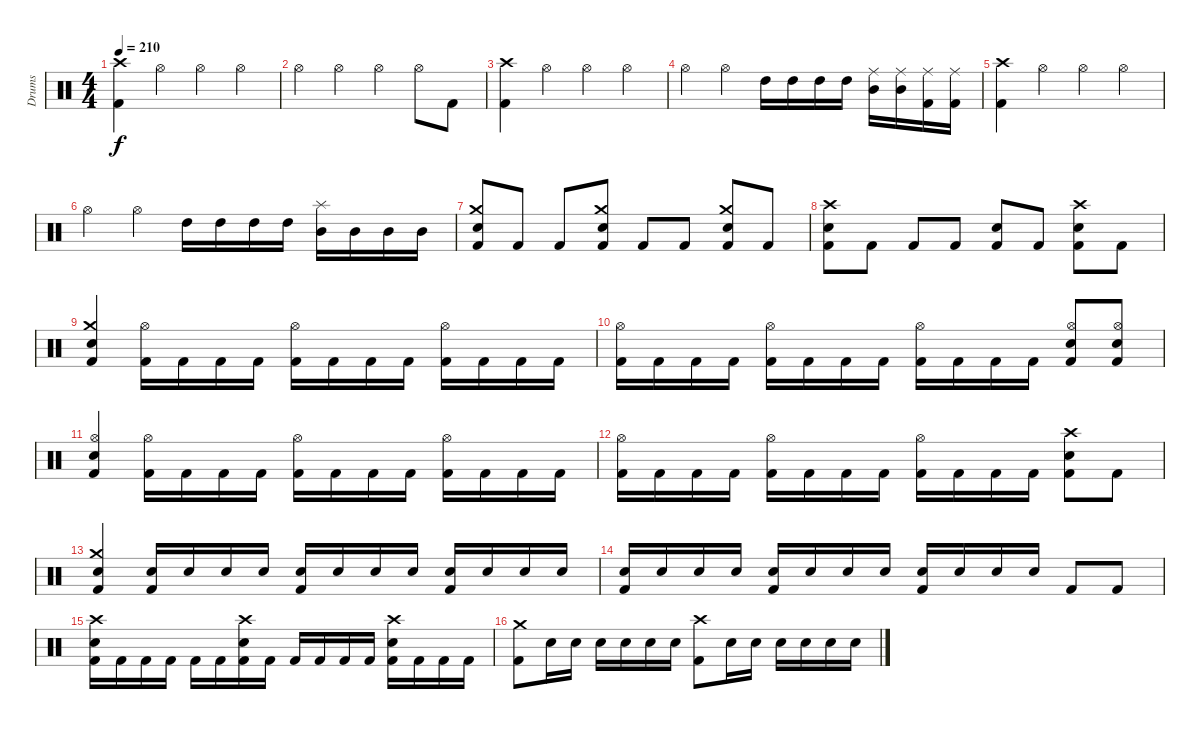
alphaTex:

\track ("Drums" "Drums") {instrument percussion}
\staff {score}
\articulation defaults
\ts (4 4)
\tempo 210
\clef neutral
\ks c
("Crash high (hit)" "Kick (hit) 2").4{dy f} "Hi-Hat (open)".4 "Hi-Hat (open)".4 "Hi-Hat (open)".4 |
"Hi-Hat (open)".4 "Hi-Hat (open)".4 "Hi-Hat (open)".4 "Hi-Hat (open)".8 "Kick (hit) 2".8 |
("Crash high (hit)" "Kick (hit) 2").4 "Hi-Hat (open)".4 "Hi-Hat (open)".4 "Hi-Hat (open)".4 |
"Hi-Hat (open)".4 "Hi-Hat (open)".4 "High Tom (hit)".16 "High Tom (hit)".16 "High Tom (hit)".16 "High Tom (hit)".16 ("Ride (middle)" "Mid Tom (hit)").16 ("Ride (middle)" "Mid Tom (hit)").16 ("Ride (middle)" "Kick (hit) 2").16 ("Ride (middle)" "Kick (hit) 2").16 |
("Crash high (hit)" "Kick (hit) 2").4 "Hi-Hat (open)".4 "Hi-Hat (open)".4 "Hi-Hat (open)".4 |
"Hi-Hat (open)".4 "Hi-Hat (open)".4 "High Tom (hit)".16 "High Tom (hit)".16 "High Tom (hit)".16 "High Tom (hit)".16 ("Splash (hit)" "Mid Tom (hit)").16 "Mid Tom (hit)".16 "Mid Tom (hit)".16 "Mid Tom (hit)".16 |
("Crash medium (hit)" "Electric Snare (hit)" "Kick (hit) 2").8 "Kick (hit) 2".8 "Kick (hit) 2".8 ("Crash medium (hit)" "Electric Snare (hit)" "Kick (hit) 2").8 "Kick (hit) 2".8 "Kick (hit) 2".8 ("Crash medium (hit)" "Electric Snare (hit)" "Kick (hit) 2").8 "Kick (hit) 2".8 |
("Crash high (hit)" "Electric Snare (hit)" "Kick (hit) 2").8 "Kick (hit) 2".8 "Kick (hit) 2".8 "Kick (hit) 2".8 ("Electric Snare (hit)" "Kick (hit) 2").8 "Kick (hit) 2".8 ("Crash high (hit)" "Electric Snare (hit)" "Kick (hit) 2").8 "Kick (hit) 2".8 |
("Crash medium (hit)" "Electric Snare (hit)" "Kick (hit) 2").4 ("Hi-Hat (open)" "Kick (hit) 2").16 "Kick (hit) 2".16 "Kick (hit) 2".16 "Kick (hit) 2".16 ("Hi-Hat (open)" "Kick (hit) 2").16 "Kick (hit) 2".16 "Kick (hit) 2".16 "Kick (hit) 2".16 ("Hi-Hat (open)" "Kick (hit) 2").16 "Kick (hit) 2".16 "Kick (hit) 2".16 "Kick (hit) 2".16 |
("Hi-Hat (open)" "Kick (hit) 2").16 "Kick (hit) 2".16 "Kick (hit) 2".16 "Kick (hit) 2".16 ("Hi-Hat (open)" "Kick (hit) 2").16 "Kick (hit) 2".16 "Kick (hit) 2".16 "Kick (hit) 2".16 ("Hi-Hat (open)" "Kick (hit) 2").16 "Kick (hit) 2".16 "Kick (hit) 2".16 "Kick (hit) 2".16 ("Hi-Hat (open)" "Electric Snare (hit)" "Kick (hit) 2").8 ("Hi-Hat (open)" "Electric Snare (hit)" "Kick (hit) 2").8 |
("Hi-Hat (open)" "Electric Snare (hit)" "Kick (hit) 2").4 ("Hi-Hat (open)" "Kick (hit) 2").16 "Kick (hit) 2".16 "Kick (hit) 2".16 "Kick (hit) 2".16 ("Hi-Hat (open)" "Kick (hit) 2").16 "Kick (hit) 2".16 "Kick (hit) 2".16 "Kick (hit) 2".16 ("Hi-Hat (open)" "Kick (hit) 2").16 "Kick (hit) 2".16 "Kick (hit) 2".16 "Kick (hit) 2".16 |
("Hi-Hat (open)" "Kick (hit) 2").16 "Kick (hit) 2".16 "Kick (hit) 2".16 "Kick (hit) 2".16 ("Hi-Hat (open)" "Kick (hit) 2").16 "Kick (hit) 2".16 "Kick (hit) 2".16 "Kick (hit) 2".16 ("Hi-Hat (open)" "Kick (hit) 2").16 "Kick (hit) 2".16 "Kick (hit) 2".16 "Kick (hit) 2".16 ("Crash high (hit)" "Electric Snare (hit)" "Kick (hit) 2").8 "Kick (hit) 2".8 |
("Crash medium (hit)" "Electric Snare (hit)" "Kick (hit) 2").4 ("Electric Snare (hit)" "Kick (hit) 2").16 "Electric Snare (hit)".16 "Electric Snare (hit)".16 "Electric Snare (hit)".16 ("Electric Snare (hit)" "Kick (hit) 2").16 "Electric Snare (hit)".16 "Electric Snare (hit)".16 "Electric Snare (hit)".16 ("Electric Snare (hit)" "Kick (hit) 2").16 "Electric Snare (hit)".16 "Electric Snare (hit)".16 "Electric Snare (hit)".16 |
("Electric Snare (hit)" "Kick (hit) 2").16 "Electric Snare (hit)".16 "Electric Snare (hit)".16 "Electric Snare (hit)".16 ("Electric Snare (hit)" "Kick (hit) 2").16 "Electric Snare (hit)".16 "Electric Snare (hit)".16 "Electric Snare (hit)".16 ("Electric Snare (hit)" "Kick (hit) 2").16 "Electric Snare (hit)".16 "Electric Snare (hit)".16 "Electric Snare (hit)".16 "Kick (hit) 2".8 "Kick (hit) 2".8 |
("Crash high (hit)" "Electric Snare (hit)" "Kick (hit) 2").16 "Kick (hit) 2".16 "Kick (hit) 2".16 "Kick (hit) 2".16 "Kick (hit) 2".16 "Kick (hit) 2".16 ("Crash high (hit)" "Electric Snare (hit)" "Kick (hit) 2").16 "Kick (hit) 2".16 "Kick (hit) 2".16 "Kick (hit) 2".16 "Kick (hit) 2".16 "Kick (hit) 2".16 ("Crash high (hit)" "Electric Snare (hit)" "Kick (hit) 2").16 "Kick (hit) 2".16 "Kick (hit) 2".16 "Kick (hit) 2".16 |
("Crash medium (hit)" "Kick (hit) 2").8 "Electric Snare (hit)".16 "Electric Snare (hit)".16 "Electric Snare (hit)".16 "Electric Snare (hit)".16 "Electric Snare (hit)".16 "Electric Snare (hit)".16 ("Crash high (hit)" "Kick (hit) 2").8 "Electric Snare (hit)".16 "Electric Snare (hit)".16 "Electric Snare (hit)".16 "Electric Snare (hit)".16 "Electric Snare (hit)".16 "Electric Snare (hit)".16
